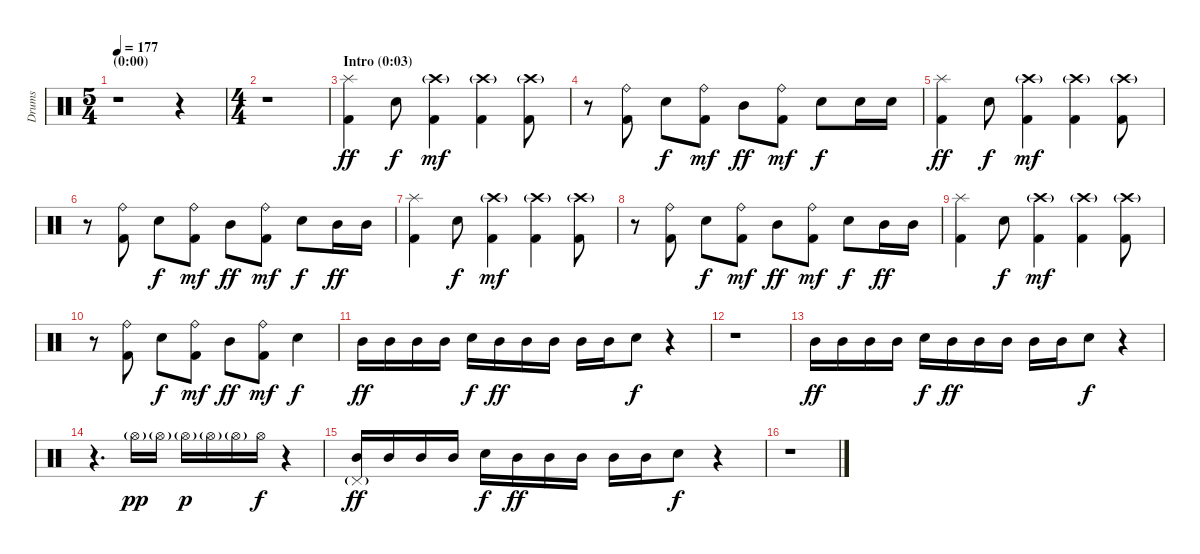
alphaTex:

\track ("Drums" "Drums") {instrument percussion}
\staff {score}
\articulation defaults
\ts (5 4)
\section ("" "(0:00)")
\tempo 177
\clef neutral
\ks c
r.1{dy ff} r.4 |
\ts (4 4)
r.1 |
\section ("" "Intro (0:03)")
("Splash (hit)" "Kick (hit) 2").4 "Snare (hit) 2".8{dy f} ("Crash high (hit)"{g} "Kick (hit) 2").4{dy mf} ("Crash high (hit)"{g} "Kick (hit) 2").4 ("Crash high (hit)"{g} "Kick (hit) 2").8 |
r.8 ("Ride (bell)" "Kick (hit) 2").8 "Snare (hit) 2".8{dy f} ("Ride (bell)" "Kick (hit) 2").8{dy mf} "Mid Tom (hit)".8{dy ff} ("Ride (bell)" "Kick (hit) 2").8{dy mf} "Snare (hit) 2".8{dy f} "Snare (hit) 2".16 "Snare (hit) 2".16 |
("Splash (hit)" "Kick (hit) 2").4{dy ff} "Snare (hit) 2".8{dy f} ("Crash high (hit)"{g} "Kick (hit) 2").4{dy mf} ("Crash high (hit)"{g} "Kick (hit) 2").4 ("Crash high (hit)"{g} "Kick (hit) 2").8 |
r.8 ("Ride (bell)" "Kick (hit) 2").8 "Snare (hit) 2".8{dy f} ("Ride (bell)" "Kick (hit) 2").8{dy mf} "Mid Tom (hit)".8{dy ff} ("Ride (bell)" "Kick (hit) 2").8{dy mf} "Snare (hit) 2".8{dy f} "Mid Tom (hit)".16{dy ff} "Mid Tom (hit)".16 |
("Splash (hit)" "Kick (hit) 2").4 "Snare (hit) 2".8{dy f} ("Crash high (hit)"{g} "Kick (hit) 2").4{dy mf} ("Crash high (hit)"{g} "Kick (hit) 2").4 ("Crash high (hit)"{g} "Kick (hit) 2").8 |
r.8 ("Ride (bell)" "Kick (hit) 2").8 "Snare (hit) 2".8{dy f} ("Ride (bell)" "Kick (hit) 2").8{dy mf} "Mid Tom (hit)".8{dy ff} ("Ride (bell)" "Kick (hit) 2").8{dy mf} "Snare (hit) 2".8{dy f} "Mid Tom (hit)".16{dy ff} "Mid Tom (hit)".16 |
("Splash (hit)" "Kick (hit) 2").4 "Snare (hit) 2".8{dy f} ("Crash high (hit)"{g} "Kick (hit) 2").4{dy mf} ("Crash high (hit)"{g} "Kick (hit) 2").4 ("Crash high (hit)"{g} "Kick (hit) 2").8 |
r.8 ("Ride (bell)" "Kick (hit) 2").8 "Snare (hit) 2".8{dy f} ("Ride (bell)" "Kick (hit) 2").8{dy mf} "Mid Tom (hit)".8{dy ff} ("Ride (bell)" "Kick (hit) 2").8{dy mf} "Snare (hit) 2".4{dy f} |
"Mid Tom (hit)".16{dy ff} "Mid Tom (hit)".16 "Mid Tom (hit)".16 "Mid Tom (hit)".16 "Snare (hit) 2".16{dy f} "Mid Tom (hit)".16{dy ff} "Mid Tom (hit)".16 "Mid Tom (hit)".16 "Mid Tom (hit)".16 "Mid Tom (hit)".16 "Snare (hit) 2".8{dy f} r.4 |
r.1 |
"Mid Tom (hit)".16{dy ff} "Mid Tom (hit)".16 "Mid Tom (hit)".16 "Mid Tom (hit)".16 "Snare (hit) 2".16{dy f} "Mid Tom (hit)".16{dy ff} "Mid Tom (hit)".16 "Mid Tom (hit)".16 "Mid Tom (hit)".16 "Mid Tom (hit)".16 "Snare (hit) 2".8{dy f} r.4 |
r.4{d} "Hi-Hat (open)"{g}.16{dy pp} "Hi-Hat (open)"{g}.16 "Hi-Hat (open)"{g}.16{dy p} "Hi-Hat (open)"{g}.16 "Hi-Hat (open)"{g}.16 "Hi-Hat (open)".16{dy f} r.4 |
("Pedal Hi-Hat (hit)"{g} "Mid Tom (hit)").16{dy ff} "Mid Tom (hit)".16 "Mid Tom (hit)".16 "Mid Tom (hit)".16 "Snare (hit) 2".16{dy f} "Mid Tom (hit)".16{dy ff} "Mid Tom (hit)".16 "Mid Tom (hit)".16 "Mid Tom (hit)".16 "Mid Tom (hit)".16 "Snare (hit) 2".8{dy f} r.4 |
r.1
